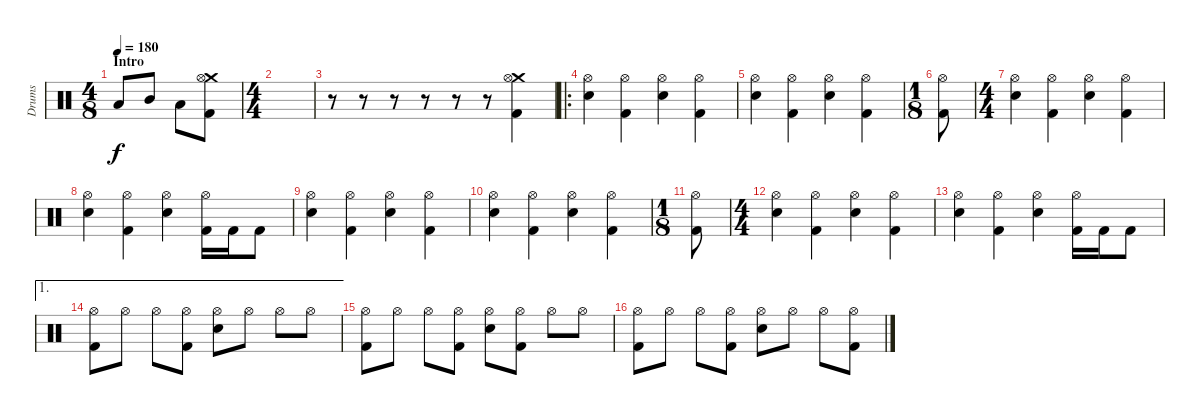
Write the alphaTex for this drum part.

\track ("Drums" "Drums") {instrument percussion}
\staff {score}
\articulation defaults
\ts (4 8)
\section ("" "Intro")
\tempo 180
\clef neutral
\ks c "Low Tom (hit)".8{dy f} "Mid Tom (hit)".8 "Low Tom (hit)".8
("Crash medium (hit)" "Hi-Hat (open)" "Kick (hit) 2").8 |
\ts (4 4)
|
r.8 r.8 r.8 r.8 r.8 r.8 ("Crash medium (hit)" "Hi-Hat (open)" "Kick (hit) 2").4 |
\ro
("Hi-Hat (open)" "Electric Snare (hit)").4 ("Hi-Hat (open)" "Kick (hit) 2").4 ("Hi-Hat (open)" "Electric Snare (hit)").4 ("Hi-Hat (open)" "Kick (hit) 2").4 |
("Hi-Hat (open)" "Electric Snare (hit)").4 ("Hi-Hat (open)" "Kick (hit) 2").4 ("Hi-Hat (open)" "Electric Snare (hit)").4 ("Hi-Hat (open)" "Kick (hit) 2").4 |
\ts (1 8)
("Hi-Hat (open)" "Kick (hit) 2").8 |
\ts (4 4)
("Hi-Hat (open)" "Electric Snare (hit)").4 ("Hi-Hat (open)" "Kick (hit) 2").4 ("Hi-Hat (open)" "Electric Snare (hit)").4 ("Hi-Hat (open)" "Kick (hit) 2").4 |
("Hi-Hat (open)" "Electric Snare (hit)").4 ("Hi-Hat (open)" "Kick (hit) 2").4 ("Hi-Hat (open)" "Electric Snare (hit)").4 ("Hi-Hat (open)" "Kick (hit) 2").16 "Kick (hit) 2".16 "Kick (hit) 2".8 |
("Hi-Hat (open)" "Electric Snare (hit)").4 ("Hi-Hat (open)" "Kick (hit) 2").4 ("Hi-Hat (open)" "Electric Snare (hit)").4 ("Hi-Hat (open)" "Kick (hit) 2").4 |
("Hi-Hat (open)" "Electric Snare (hit)").4 ("Hi-Hat (open)" "Kick (hit) 2").4 ("Hi-Hat (open)" "Electric Snare (hit)").4 ("Hi-Hat (open)" "Kick (hit) 2").4 |
\ts (1 8)
("Hi-Hat (open)" "Kick (hit) 2").8 |
\ts (4 4)
("Hi-Hat (open)" "Electric Snare (hit)").4 ("Hi-Hat (open)" "Kick (hit) 2").4 ("Hi-Hat (open)" "Electric Snare (hit)").4 ("Hi-Hat (open)" "Kick (hit) 2").4 |
("Hi-Hat (open)" "Electric Snare (hit)").4 ("Hi-Hat (open)" "Kick (hit) 2").4 ("Hi-Hat (open)" "Electric Snare (hit)").4 ("Hi-Hat (open)" "Kick (hit) 2").16 "Kick (hit) 2".16 "Kick (hit) 2".8 |
\ae 1
("Hi-Hat (open)" "Kick (hit) 2").8 "Hi-Hat (open)".8 "Hi-Hat (open)".8 ("Hi-Hat (open)" "Kick (hit) 2").8 ("Hi-Hat (open)" "Electric Snare (hit)").8 "Hi-Hat (open)".8 "Hi-Hat (open)".8 "Hi-Hat (open)".8 |
("Hi-Hat (open)" "Kick (hit) 2").8 "Hi-Hat (open)".8 "Hi-Hat (open)".8 ("Hi-Hat (open)" "Kick (hit) 2").8 ("Hi-Hat (open)" "Electric Snare (hit)").8 ("Hi-Hat (open)" "Kick (hit) 2").8 "Hi-Hat (open)".8 "Hi-Hat (open)".8 |
("Hi-Hat (open)" "Kick (hit) 2").8 "Hi-Hat (open)".8 "Hi-Hat (open)".8 ("Hi-Hat (open)" "Kick (hit) 2").8 ("Hi-Hat (open)" "Electric Snare (hit)").8 "Hi-Hat (open)".8 "Hi-Hat (open)".8 ("Hi-Hat (open)" "Kick (hit) 2").8
